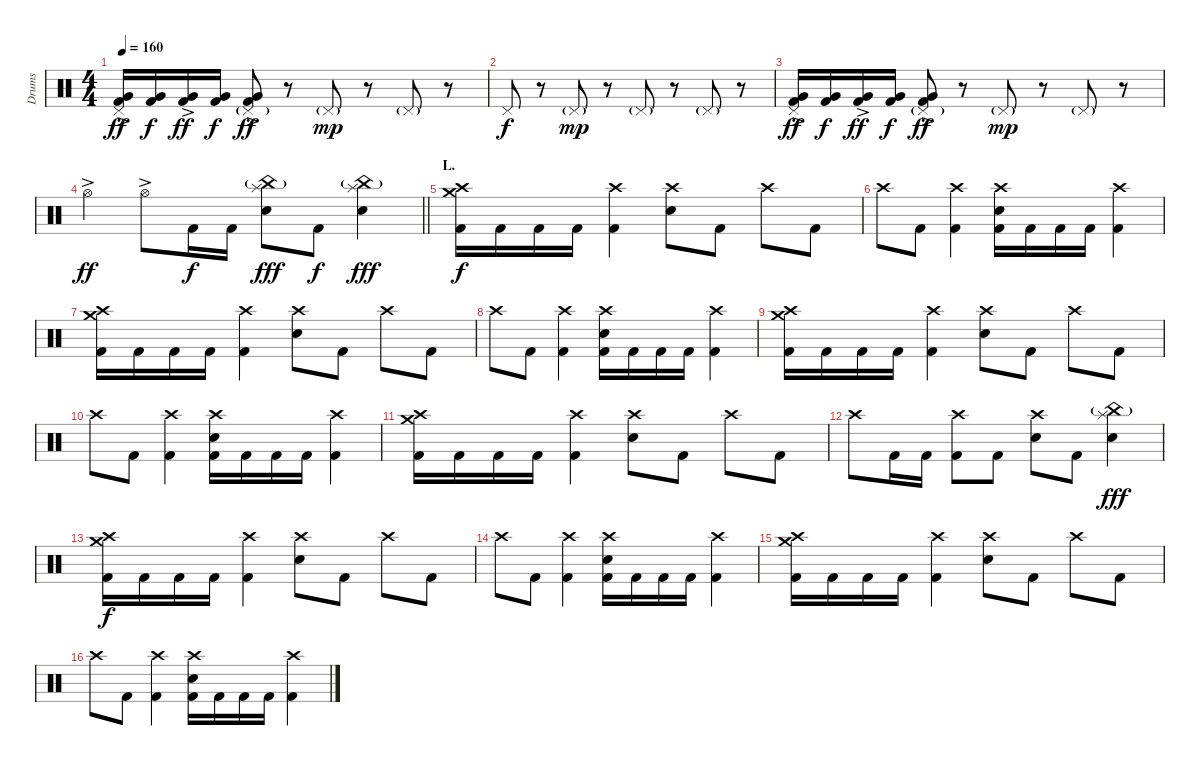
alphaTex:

\track ("Drums" "Drums") {instrument percussion}
\staff {score}
\articulation defaults
\ts (4 4)
\tempo 160
\clef neutral
\ks c
("Pedal Hi-Hat (hit)" "Very Low Tom (hit)"{ac} "Kick (hit) 2").16{dy ff} ("Very Low Tom (hit)" "Kick (hit) 2").16{dy f} ("Very Low Tom (hit)"{ac} "Kick (hit) 2").16{dy ff} ("Very Low Tom (hit)" "Kick (hit) 2").16{dy f} ("Pedal Hi-Hat (hit)"{g} "Very Low Tom (hit)"{ac} "Kick (hit) 2").8{dy ff} r.8 "Pedal Hi-Hat (hit)"{g}.8{dy mp} r.8 "Pedal Hi-Hat (hit)"{g}.8 r.8 |
"Pedal Hi-Hat (hit)".8{dy f} r.8 "Pedal Hi-Hat (hit)"{g}.8{dy mp} r.8 "Pedal Hi-Hat (hit)"{g}.8 r.8 "Pedal Hi-Hat (hit)"{g}.8 r.8 |
("Pedal Hi-Hat (hit)" "Very Low Tom (hit)"{ac} "Kick (hit) 2").16{dy ff} ("Very Low Tom (hit)" "Kick (hit) 2").16{dy f} ("Very Low Tom (hit)"{ac} "Kick (hit) 2").16{dy ff} ("Very Low Tom (hit)" "Kick (hit) 2").16{dy f} ("Pedal Hi-Hat (hit)"{g} "Very Low Tom (hit)"{ac} "Kick (hit) 2").8{dy ff} r.8 "Pedal Hi-Hat (hit)"{g}.8{dy mp} r.8 "Pedal Hi-Hat (hit)"{g}.8 r.8 |
\barLineRight lightlight "Hi-Hat (open)"{ac}.4{dy ff} "Hi-Hat (open)"{ac}.8 "Kick (hit) 2".16{dy f} "Kick (hit) 2".16
("China (hit)"{g} "Splash (hit)" "Electric Snare (hit)").8{dy fff} "Kick (hit) 2".8{dy f} ("China (hit)"{g} "Splash (hit)" "Electric Snare (hit)").4{dy fff} |
\section ("" "L.")
("Crash medium (hit)" "Crash high (hit)" "Kick (hit) 2").16{dy f} "Kick (hit) 2".16 "Kick (hit) 2".16 "Kick (hit) 2".16 ("Crash high (hit)" "Kick (hit) 2").4 ("Crash high (hit)" "Electric Snare (hit)").8 "Kick (hit) 2".8 "Crash high (hit)".8 "Kick (hit) 2".8 |
"Crash high (hit)".8 "Kick (hit) 2".8 ("Crash high (hit)" "Kick (hit) 2").4 ("Crash high (hit)" "Electric Snare (hit)" "Kick (hit) 2").16 "Kick (hit) 2".16 "Kick (hit) 2".16 "Kick (hit) 2".16 ("Crash high (hit)" "Kick (hit) 2").4 |
("Crash medium (hit)" "Crash high (hit)" "Kick (hit) 2").16 "Kick (hit) 2".16 "Kick (hit) 2".16 "Kick (hit) 2".16 ("Crash high (hit)" "Kick (hit) 2").4 ("Crash high (hit)" "Electric Snare (hit)").8 "Kick (hit) 2".8 "Crash high (hit)".8 "Kick (hit) 2".8 |
"Crash high (hit)".8 "Kick (hit) 2".8 ("Crash high (hit)" "Kick (hit) 2").4 ("Crash high (hit)" "Electric Snare (hit)" "Kick (hit) 2").16 "Kick (hit) 2".16 "Kick (hit) 2".16 "Kick (hit) 2".16 ("Crash high (hit)" "Kick (hit) 2").4 |
("Crash medium (hit)" "Crash high (hit)" "Kick (hit) 2").16 "Kick (hit) 2".16 "Kick (hit) 2".16 "Kick (hit) 2".16 ("Crash high (hit)" "Kick (hit) 2").4 ("Crash high (hit)" "Electric Snare (hit)").8 "Kick (hit) 2".8 "Crash high (hit)".8 "Kick (hit) 2".8 |
"Crash high (hit)".8 "Kick (hit) 2".8 ("Crash high (hit)" "Kick (hit) 2").4 ("Crash high (hit)" "Electric Snare (hit)" "Kick (hit) 2").16 "Kick (hit) 2".16 "Kick (hit) 2".16 "Kick (hit) 2".16 ("Crash high (hit)" "Kick (hit) 2").4 |
("Crash medium (hit)" "Crash high (hit)" "Kick (hit) 2").16 "Kick (hit) 2".16 "Kick (hit) 2".16 "Kick (hit) 2".16 ("Crash high (hit)" "Kick (hit) 2").4 ("Crash high (hit)" "Electric Snare (hit)").8 "Kick (hit) 2".8 "Crash high (hit)".8 "Kick (hit) 2".8 |
"Crash high (hit)".8 "Kick (hit) 2".16 "Kick (hit) 2".16 ("Crash high (hit)" "Kick (hit) 2").8 "Kick (hit) 2".8 ("Crash high (hit)" "Electric Snare (hit)").8 "Kick (hit) 2".8 ("China (hit)"{g} "Splash (hit)" "Electric Snare (hit)").4{dy fff} |
("Crash medium (hit)" "Crash high (hit)" "Kick (hit) 2").16{dy f} "Kick (hit) 2".16 "Kick (hit) 2".16 "Kick (hit) 2".16 ("Crash high (hit)" "Kick (hit) 2").4 ("Crash high (hit)" "Electric Snare (hit)").8 "Kick (hit) 2".8 "Crash high (hit)".8 "Kick (hit) 2".8 |
"Crash high (hit)".8 "Kick (hit) 2".8 ("Crash high (hit)" "Kick (hit) 2").4 ("Crash high (hit)" "Electric Snare (hit)" "Kick (hit) 2").16 "Kick (hit) 2".16 "Kick (hit) 2".16 "Kick (hit) 2".16 ("Crash high (hit)" "Kick (hit) 2").4 |
("Crash medium (hit)" "Crash high (hit)" "Kick (hit) 2").16 "Kick (hit) 2".16 "Kick (hit) 2".16 "Kick (hit) 2".16 ("Crash high (hit)" "Kick (hit) 2").4 ("Crash high (hit)" "Electric Snare (hit)").8 "Kick (hit) 2".8 "Crash high (hit)".8 "Kick (hit) 2".8 |
"Crash high (hit)".8 "Kick (hit) 2".8 ("Crash high (hit)" "Kick (hit) 2").4 ("Crash high (hit)" "Electric Snare (hit)" "Kick (hit) 2").16 "Kick (hit) 2".16 "Kick (hit) 2".16 "Kick (hit) 2".16 ("Crash high (hit)" "Kick (hit) 2").4
